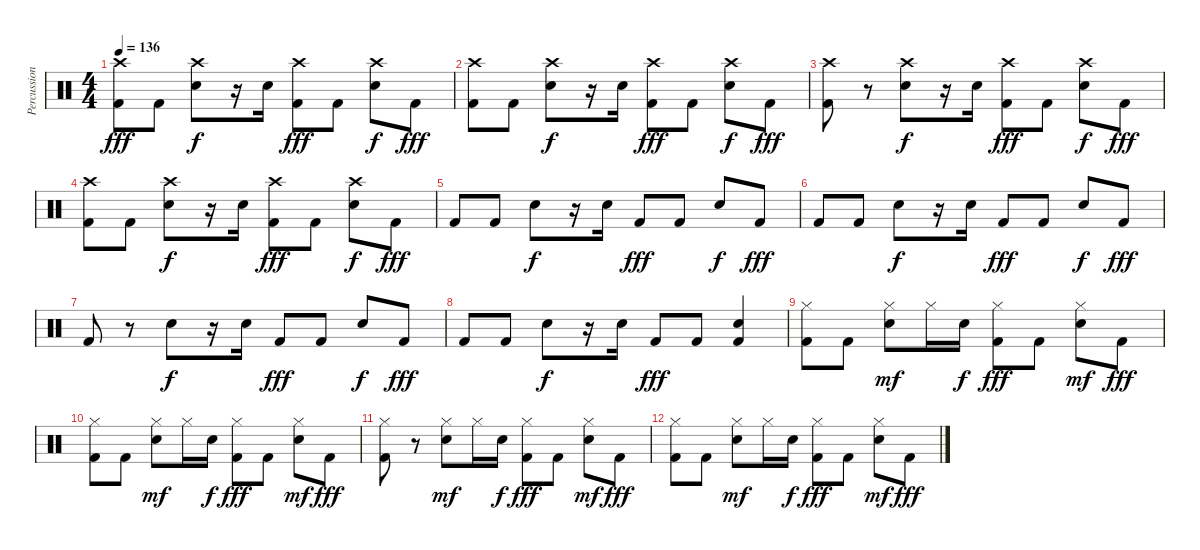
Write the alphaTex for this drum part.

\track ("Percussion" "Percussion") {instrument percussion}
\staff {score}
\articulation defaults
\ts (4 4)
\tempo 136
\clef neutral
\ks c
("Crash high (hit)" "Kick (hit) 2").8{dy fff} "Kick (hit) 2".8 ("Crash high (hit)" "Snare (hit) 2").8{dy f} r.16 "Snare (hit) 2".16 ("Crash high (hit)" "Kick (hit) 2").8{dy fff} "Kick (hit) 2".8 ("Crash high (hit)" "Snare (hit) 2").8{dy f} "Kick (hit) 2".8{dy fff} |
("Crash high (hit)" "Kick (hit) 2").8 "Kick (hit) 2".8 ("Crash high (hit)" "Snare (hit) 2").8{dy f} r.16 "Snare (hit) 2".16 ("Crash high (hit)" "Kick (hit) 2").8{dy fff} "Kick (hit) 2".8 ("Crash high (hit)" "Snare (hit) 2").8{dy f} "Kick (hit) 2".8{dy fff} |
("Crash high (hit)" "Kick (hit) 2").8 r.8 ("Crash high (hit)" "Snare (hit) 2").8{dy f} r.16 "Snare (hit) 2".16 ("Crash high (hit)" "Kick (hit) 2").8{dy fff} "Kick (hit) 2".8 ("Crash high (hit)" "Snare (hit) 2").8{dy f} "Kick (hit) 2".8{dy fff} |
("Crash high (hit)" "Kick (hit) 2").8 "Kick (hit) 2".8 ("Crash high (hit)" "Snare (hit) 2").8{dy f} r.16 "Snare (hit) 2".16 ("Crash high (hit)" "Kick (hit) 2").8{dy fff} "Kick (hit) 2".8 ("Crash high (hit)" "Snare (hit) 2").8{dy f} "Kick (hit) 2".8{dy fff} |
"Kick (hit) 2".8 "Kick (hit) 2".8 "Snare (hit) 2".8{dy f} r.16 "Snare (hit) 2".16 "Kick (hit) 2".8{dy fff} "Kick (hit) 2".8 "Snare (hit) 2".8{dy f} "Kick (hit) 2".8{dy fff} |
"Kick (hit) 2".8 "Kick (hit) 2".8 "Snare (hit) 2".8{dy f} r.16 "Snare (hit) 2".16 "Kick (hit) 2".8{dy fff} "Kick (hit) 2".8 "Snare (hit) 2".8{dy f} "Kick (hit) 2".8{dy fff} |
"Kick (hit) 2".8 r.8 "Snare (hit) 2".8{dy f} r.16 "Snare (hit) 2".16 "Kick (hit) 2".8{dy fff} "Kick (hit) 2".8 "Snare (hit) 2".8{dy f} "Kick (hit) 2".8{dy fff} |
"Kick (hit) 2".8 "Kick (hit) 2".8 "Snare (hit) 2".8{dy f} r.16 "Snare (hit) 2".16 "Kick (hit) 2".8{dy fff} "Kick (hit) 2".8 ("Kick (hit) 2" "Snare (hit) 2").4 |
("Hi-Hat (closed)" "Kick (hit) 2").8 "Kick (hit) 2".8 ("Hi-Hat (closed)" "Snare (hit) 2").8{dy mf} "Hi-Hat (closed)".16 "Snare (hit) 2".16{dy f} ("Hi-Hat (closed)" "Kick (hit) 2").8{dy fff} "Kick (hit) 2".8 ("Hi-Hat (closed)" "Snare (hit) 2").8{dy mf} "Kick (hit) 2".8{dy fff} |
("Hi-Hat (closed)" "Kick (hit) 2").8 "Kick (hit) 2".8 ("Hi-Hat (closed)" "Snare (hit) 2").8{dy mf} "Hi-Hat (closed)".16 "Snare (hit) 2".16{dy f} ("Hi-Hat (closed)" "Kick (hit) 2").8{dy fff} "Kick (hit) 2".8 ("Hi-Hat (closed)" "Snare (hit) 2").8{dy mf} "Kick (hit) 2".8{dy fff} |
("Hi-Hat (closed)" "Kick (hit) 2").8 r.8 ("Hi-Hat (closed)" "Snare (hit) 2").8{dy mf} "Hi-Hat (closed)".16 "Snare (hit) 2".16{dy f} ("Hi-Hat (closed)" "Kick (hit) 2").8{dy fff} "Kick (hit) 2".8 ("Hi-Hat (closed)" "Snare (hit) 2").8{dy mf} "Kick (hit) 2".8{dy fff} |
("Hi-Hat (closed)" "Kick (hit) 2").8 "Kick (hit) 2".8 ("Hi-Hat (closed)" "Snare (hit) 2").8{dy mf} "Hi-Hat (closed)".16 "Snare (hit) 2".16{dy f} ("Hi-Hat (closed)" "Kick (hit) 2").8{dy fff} "Kick (hit) 2".8 ("Hi-Hat (closed)" "Snare (hit) 2").8{dy mf} "Kick (hit) 2".8{dy fff}
